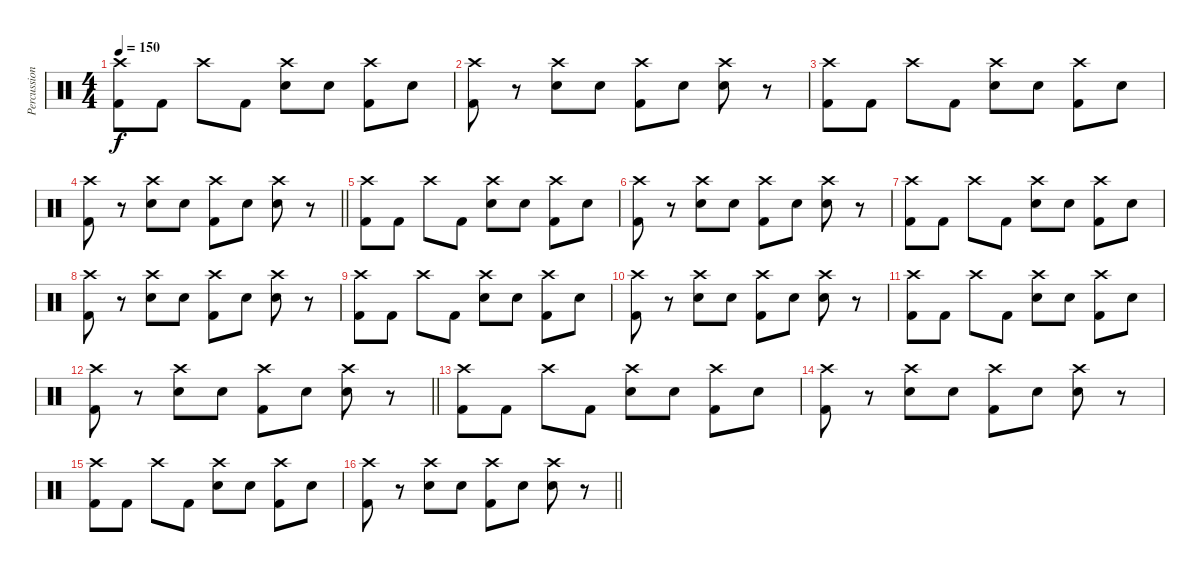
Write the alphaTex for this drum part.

\track ("Percussion" "Percussion") {instrument percussion}
\staff {score}
\articulation defaults
\ts (4 4)
\tempo 150
\clef neutral
\ks c
("Crash high (hit)" "Kick (hit) 2").8{dy f} "Kick (hit) 2".8 "Crash high (hit)".8 "Kick (hit) 2".8 ("Crash high (hit)" "Electric Snare (hit)").8 "Electric Snare (hit)".8 ("Crash high (hit)" "Kick (hit) 2").8 "Electric Snare (hit)".8 |
("Crash high (hit)" "Kick (hit) 2").8 r.8 ("Crash high (hit)" "Electric Snare (hit)").8 "Electric Snare (hit)".8 ("Crash high (hit)" "Kick (hit) 2").8 "Electric Snare (hit)".8 ("Crash high (hit)" "Electric Snare (hit)").8 r.8 |
("Crash high (hit)" "Kick (hit) 2").8 "Kick (hit) 2".8 "Crash high (hit)".8 "Kick (hit) 2".8 ("Crash high (hit)" "Electric Snare (hit)").8 "Electric Snare (hit)".8 ("Crash high (hit)" "Kick (hit) 2").8 "Electric Snare (hit)".8 |
\barLineRight lightlight
("Crash high (hit)" "Kick (hit) 2").8 r.8 ("Crash high (hit)" "Electric Snare (hit)").8 "Electric Snare (hit)".8 ("Crash high (hit)" "Kick (hit) 2").8 "Electric Snare (hit)".8 ("Crash high (hit)" "Electric Snare (hit)").8 r.8 |
("Crash high (hit)" "Kick (hit) 2").8 "Kick (hit) 2".8 "Crash high (hit)".8 "Kick (hit) 2".8 ("Crash high (hit)" "Electric Snare (hit)").8 "Electric Snare (hit)".8 ("Crash high (hit)" "Kick (hit) 2").8 "Electric Snare (hit)".8 |
("Crash high (hit)" "Kick (hit) 2").8 r.8 ("Crash high (hit)" "Electric Snare (hit)").8 "Electric Snare (hit)".8 ("Crash high (hit)" "Kick (hit) 2").8 "Electric Snare (hit)".8 ("Crash high (hit)" "Electric Snare (hit)").8 r.8 |
("Crash high (hit)" "Kick (hit) 2").8 "Kick (hit) 2".8 "Crash high (hit)".8 "Kick (hit) 2".8 ("Crash high (hit)" "Electric Snare (hit)").8 "Electric Snare (hit)".8 ("Crash high (hit)" "Kick (hit) 2").8 "Electric Snare (hit)".8 |
("Crash high (hit)" "Kick (hit) 2").8 r.8 ("Crash high (hit)" "Electric Snare (hit)").8 "Electric Snare (hit)".8 ("Crash high (hit)" "Kick (hit) 2").8 "Electric Snare (hit)".8 ("Crash high (hit)" "Electric Snare (hit)").8 r.8 |
("Crash high (hit)" "Kick (hit) 2").8 "Kick (hit) 2".8 "Crash high (hit)".8 "Kick (hit) 2".8 ("Crash high (hit)" "Electric Snare (hit)").8 "Electric Snare (hit)".8 ("Crash high (hit)" "Kick (hit) 2").8 "Electric Snare (hit)".8 |
("Crash high (hit)" "Kick (hit) 2").8 r.8 ("Crash high (hit)" "Electric Snare (hit)").8 "Electric Snare (hit)".8 ("Crash high (hit)" "Kick (hit) 2").8 "Electric Snare (hit)".8 ("Crash high (hit)" "Electric Snare (hit)").8 r.8 |
("Crash high (hit)" "Kick (hit) 2").8 "Kick (hit) 2".8 "Crash high (hit)".8 "Kick (hit) 2".8 ("Crash high (hit)" "Electric Snare (hit)").8 "Electric Snare (hit)".8 ("Crash high (hit)" "Kick (hit) 2").8 "Electric Snare (hit)".8 |
\barLineRight lightlight
("Crash high (hit)" "Kick (hit) 2").8 r.8 ("Crash high (hit)" "Electric Snare (hit)").8 "Electric Snare (hit)".8 ("Crash high (hit)" "Kick (hit) 2").8 "Electric Snare (hit)".8 ("Crash high (hit)" "Electric Snare (hit)").8 r.8 |
("Crash high (hit)" "Kick (hit) 2").8 "Kick (hit) 2".8 "Crash high (hit)".8 "Kick (hit) 2".8 ("Crash high (hit)" "Electric Snare (hit)").8 "Electric Snare (hit)".8 ("Crash high (hit)" "Kick (hit) 2").8 "Electric Snare (hit)".8 |
("Crash high (hit)" "Kick (hit) 2").8 r.8 ("Crash high (hit)" "Electric Snare (hit)").8 "Electric Snare (hit)".8 ("Crash high (hit)" "Kick (hit) 2").8 "Electric Snare (hit)".8 ("Crash high (hit)" "Electric Snare (hit)").8 r.8 |
("Crash high (hit)" "Kick (hit) 2").8 "Kick (hit) 2".8 "Crash high (hit)".8 "Kick (hit) 2".8 ("Crash high (hit)" "Electric Snare (hit)").8 "Electric Snare (hit)".8 ("Crash high (hit)" "Kick (hit) 2").8 "Electric Snare (hit)".8 |
\barLineRight lightlight
("Crash high (hit)" "Kick (hit) 2").8 r.8 ("Crash high (hit)" "Electric Snare (hit)").8 "Electric Snare (hit)".8 ("Crash high (hit)" "Kick (hit) 2").8 "Electric Snare (hit)".8 ("Crash high (hit)" "Electric Snare (hit)").8 r.8
